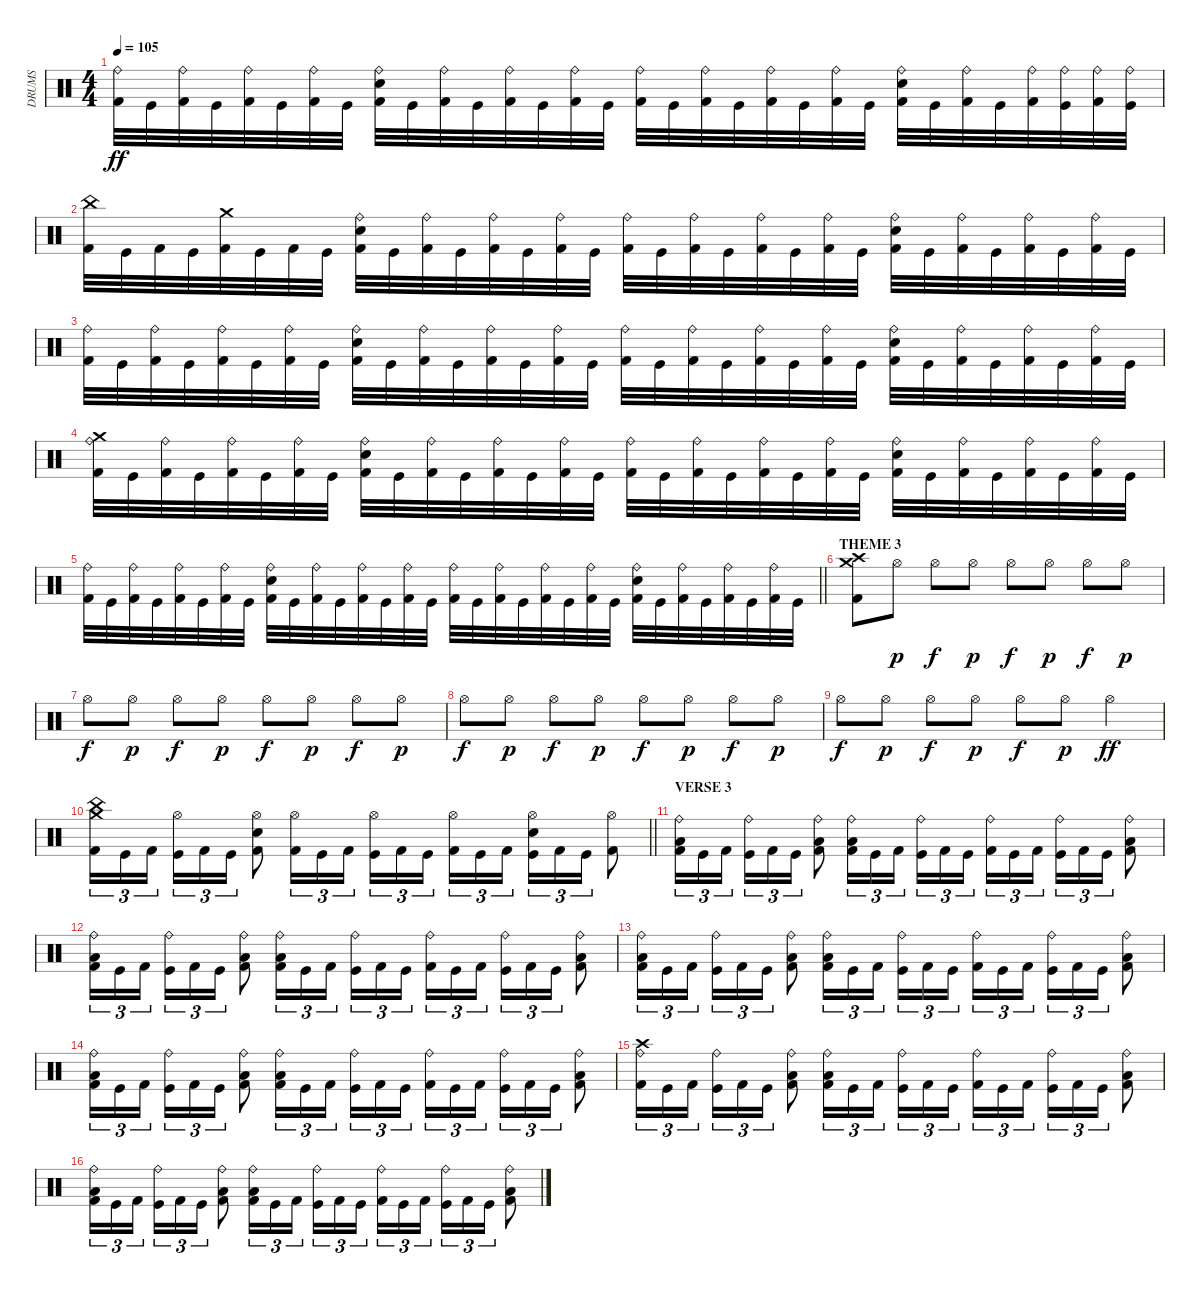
\track ("DRUMS" "DRUMS") {instrument percussion}
\staff {score}
\articulation defaults
\ts (4 4)
\tempo 105
\clef neutral
\ks c
("Ride (bell)" "Kick (hit) 2").32{dy ff} "Kick (hit)".32 ("Ride (bell)" "Kick (hit) 2").32 "Kick (hit)".32 ("Ride (bell)" "Kick (hit) 2").32 "Kick (hit)".32 ("Ride (bell)" "Kick (hit) 2").32 "Kick (hit)".32 ("Ride (bell)" "Snare (hit) 2" "Kick (hit) 2").32 "Kick (hit)".32 ("Ride (bell)" "Kick (hit) 2").32 "Kick (hit)".32 ("Ride (bell)" "Kick (hit) 2").32 "Kick (hit)".32 ("Ride (bell)" "Kick (hit) 2").32 "Kick (hit)".32 ("Ride (bell)" "Kick (hit) 2").32 "Kick (hit)".32 ("Ride (bell)" "Kick (hit) 2").32 "Kick (hit)".32 ("Ride (bell)" "Kick (hit) 2").32 "Kick (hit)".32 ("Ride (bell)" "Kick (hit) 2").32 "Kick (hit)".32 ("Ride (bell)" "Snare (hit) 2" "Kick (hit) 2").32 "Kick (hit)".32 ("Ride (bell)" "Kick (hit) 2").32 "Kick (hit)".32 ("Ride (bell)" "Kick (hit) 2").32 ("Ride (bell)" "Kick (hit)").32 ("Ride (bell)" "Kick (hit) 2").32 ("Ride (bell)" "Kick (hit)").32 |
("China (hit)" "Kick (hit) 2").32 "Kick (hit)".32 "Kick (hit) 2".32 "Kick (hit)".32 ("Crash medium (hit)" "Kick (hit) 2").32 "Kick (hit)".32 "Kick (hit) 2".32 "Kick (hit)".32 ("Ride (bell)" "Snare (hit) 2" "Kick (hit) 2").32 "Kick (hit)".32 ("Ride (bell)" "Kick (hit) 2").32 "Kick (hit)".32 ("Ride (bell)" "Kick (hit) 2").32 "Kick (hit)".32 ("Ride (bell)" "Kick (hit) 2").32 "Kick (hit)".32 ("Ride (bell)" "Kick (hit) 2").32 "Kick (hit)".32 ("Ride (bell)" "Kick (hit) 2").32 "Kick (hit)".32 ("Ride (bell)" "Kick (hit) 2").32 "Kick (hit)".32 ("Ride (bell)" "Kick (hit) 2").32 "Kick (hit)".32 ("Ride (bell)" "Snare (hit) 2" "Kick (hit) 2").32 "Kick (hit)".32 ("Ride (bell)" "Kick (hit) 2").32 "Kick (hit)".32 ("Ride (bell)" "Kick (hit) 2").32 "Kick (hit)".32 ("Ride (bell)" "Kick (hit) 2").32 "Kick (hit)".32 |
("Ride (bell)" "Kick (hit) 2").32 "Kick (hit)".32 ("Ride (bell)" "Kick (hit) 2").32 "Kick (hit)".32 ("Ride (bell)" "Kick (hit) 2").32 "Kick (hit)".32 ("Ride (bell)" "Kick (hit) 2").32 "Kick (hit)".32 ("Ride (bell)" "Snare (hit) 2" "Kick (hit) 2").32 "Kick (hit)".32 ("Ride (bell)" "Kick (hit) 2").32 "Kick (hit)".32 ("Ride (bell)" "Kick (hit) 2").32 "Kick (hit)".32 ("Ride (bell)" "Kick (hit) 2").32 "Kick (hit)".32 ("Ride (bell)" "Kick (hit) 2").32 "Kick (hit)".32 ("Ride (bell)" "Kick (hit) 2").32 "Kick (hit)".32 ("Ride (bell)" "Kick (hit) 2").32 "Kick (hit)".32 ("Ride (bell)" "Kick (hit) 2").32 "Kick (hit)".32 ("Ride (bell)" "Snare (hit) 2" "Kick (hit) 2").32 "Kick (hit)".32 ("Ride (bell)" "Kick (hit) 2").32 "Kick (hit)".32 ("Ride (bell)" "Kick (hit) 2").32 "Kick (hit)".32 ("Ride (bell)" "Kick (hit) 2").32 "Kick (hit)".32 |
("Ride (bell)" "Crash medium (hit)" "Kick (hit) 2").32 "Kick (hit)".32 ("Ride (bell)" "Kick (hit) 2").32 "Kick (hit)".32 ("Ride (bell)" "Kick (hit) 2").32 "Kick (hit)".32 ("Ride (bell)" "Kick (hit) 2").32 "Kick (hit)".32 ("Ride (bell)" "Snare (hit) 2" "Kick (hit) 2").32 "Kick (hit)".32 ("Ride (bell)" "Kick (hit) 2").32 "Kick (hit)".32 ("Ride (bell)" "Kick (hit) 2").32 "Kick (hit)".32 ("Ride (bell)" "Kick (hit) 2").32 "Kick (hit)".32 ("Ride (bell)" "Kick (hit) 2").32 "Kick (hit)".32 ("Ride (bell)" "Kick (hit) 2").32 "Kick (hit)".32 ("Ride (bell)" "Kick (hit) 2").32 "Kick (hit)".32 ("Ride (bell)" "Kick (hit) 2").32 "Kick (hit)".32 ("Ride (bell)" "Snare (hit) 2" "Kick (hit) 2").32 "Kick (hit)".32 ("Ride (bell)" "Kick (hit) 2").32 "Kick (hit)".32 ("Ride (bell)" "Kick (hit) 2").32 "Kick (hit)".32 ("Ride (bell)" "Kick (hit) 2").32 "Kick (hit)".32 |
\barLineRight lightlight
("Ride (bell)" "Kick (hit) 2").32 "Kick (hit)".32 ("Ride (bell)" "Kick (hit) 2").32 "Kick (hit)".32 ("Ride (bell)" "Kick (hit) 2").32 "Kick (hit)".32 ("Ride (bell)" "Kick (hit) 2").32 "Kick (hit)".32 ("Ride (bell)" "Snare (hit) 2" "Kick (hit) 2").32 "Kick (hit)".32 ("Ride (bell)" "Kick (hit) 2").32 "Kick (hit)".32 ("Ride (bell)" "Kick (hit) 2").32 "Kick (hit)".32 ("Ride (bell)" "Kick (hit) 2").32 "Kick (hit)".32 ("Ride (bell)" "Kick (hit) 2").32 "Kick (hit)".32 ("Ride (bell)" "Kick (hit) 2").32 "Kick (hit)".32 ("Ride (bell)" "Kick (hit) 2").32 "Kick (hit)".32 ("Ride (bell)" "Kick (hit) 2").32 "Kick (hit)".32 ("Ride (bell)" "Snare (hit) 2" "Kick (hit) 2").32 "Kick (hit)".32 ("Ride (bell)" "Kick (hit) 2").32 "Kick (hit)".32 ("Ride (bell)" "Kick (hit) 2").32 "Kick (hit)".32 ("Ride (bell)" "Kick (hit) 2").32 "Kick (hit)".32 |
\section ("" "THEME 3")
("Crash medium (hit)" "Crash high (hit)" "Kick (hit) 2").8 "Hi-Hat (open)".8{dy p} "Hi-Hat (open)".8{dy f} "Hi-Hat (open)".8{dy p} "Hi-Hat (open)".8{dy f} "Hi-Hat (open)".8{dy p} "Hi-Hat (open)".8{dy f} "Hi-Hat (open)".8{dy p} |
"Hi-Hat (open)".8{dy f} "Hi-Hat (open)".8{dy p} "Hi-Hat (open)".8{dy f} "Hi-Hat (open)".8{dy p} "Hi-Hat (open)".8{dy f} "Hi-Hat (open)".8{dy p} "Hi-Hat (open)".8{dy f} "Hi-Hat (open)".8{dy p} |
"Hi-Hat (open)".8{dy f} "Hi-Hat (open)".8{dy p} "Hi-Hat (open)".8{dy f} "Hi-Hat (open)".8{dy p} "Hi-Hat (open)".8{dy f} "Hi-Hat (open)".8{dy p} "Hi-Hat (open)".8{dy f} "Hi-Hat (open)".8{dy p} |
"Hi-Hat (open)".8{dy f} "Hi-Hat (open)".8{dy p} "Hi-Hat (open)".8{dy f} "Hi-Hat (open)".8{dy p} "Hi-Hat (open)".8{dy f} "Hi-Hat (open)".8{dy p} "Hi-Hat (open)".4{dy ff} |
\barLineRight lightlight
("China (hit)" "Crash medium (hit)" "Kick (hit) 2").16{tu (3 2)} "Kick (hit)".16{tu (3 2)} "Kick (hit) 2".16{tu (3 2) beam splitsecondary} ("Hi-Hat (open)" "Kick (hit)").16{tu (3 2)} "Kick (hit) 2".16{tu (3 2)} "Kick (hit)".16{tu (3 2)} ("Hi-Hat (open)" "Snare (hit) 2" "Kick (hit) 2").8 ("Hi-Hat (open)" "Kick (hit) 2").16{tu (3 2)} "Kick (hit)".16{tu (3 2)} "Kick (hit) 2".16{tu (3 2)} ("Hi-Hat (open)" "Kick (hit)").16{tu (3 2)} "Kick (hit) 2".16{tu (3 2)} "Kick (hit)".16{tu (3 2) beam splitsecondary} ("Hi-Hat (open)" "Kick (hit) 2").16{tu (3 2)} "Kick (hit)".16{tu (3 2)} "Kick (hit) 2".16{tu (3 2)} ("Hi-Hat (open)" "Snare (hit) 2" "Kick (hit)").16{tu (3 2)} "Kick (hit) 2".16{tu (3 2)} "Kick (hit)".16{tu (3 2)} ("Hi-Hat (open)" "Kick (hit) 2").8 |
\section ("" "VERSE 3")
("Ride (bell)" "Low Tom (hit)" "Kick (hit) 2").16{tu (3 2)} "Kick (hit)".16{tu (3 2)} "Kick (hit) 2".16{tu (3 2) beam splitsecondary} ("Ride (bell)" "Kick (hit)").16{tu (3 2)} "Kick (hit) 2".16{tu (3 2)} "Kick (hit)".16{tu (3 2)} ("Ride (bell)" "Low Tom (hit)" "Kick (hit) 2").8 ("Ride (bell)" "Low Tom (hit)" "Kick (hit) 2").16{tu (3 2)} "Kick (hit)".16{tu (3 2)} "Kick (hit) 2".16{tu (3 2)} ("Ride (bell)" "Kick (hit)").16{tu (3 2)} "Kick (hit) 2".16{tu (3 2)} "Kick (hit)".16{tu (3 2) beam splitsecondary} ("Ride (bell)" "Kick (hit) 2").16{tu (3 2)} "Kick (hit)".16{tu (3 2)} "Kick (hit) 2".16{tu (3 2)} ("Ride (bell)" "Kick (hit)").16{tu (3 2)} "Kick (hit) 2".16{tu (3 2)} "Kick (hit)".16{tu (3 2)} ("Ride (bell)" "Low Tom (hit)" "Kick (hit) 2").8 |
("Ride (bell)" "Low Tom (hit)" "Kick (hit) 2").16{tu (3 2)} "Kick (hit)".16{tu (3 2)} "Kick (hit) 2".16{tu (3 2) beam splitsecondary} ("Ride (bell)" "Kick (hit)").16{tu (3 2)} "Kick (hit) 2".16{tu (3 2)} "Kick (hit)".16{tu (3 2)} ("Ride (bell)" "Low Tom (hit)" "Kick (hit) 2").8 ("Ride (bell)" "Low Tom (hit)" "Kick (hit) 2").16{tu (3 2)} "Kick (hit)".16{tu (3 2)} "Kick (hit) 2".16{tu (3 2)} ("Ride (bell)" "Kick (hit)").16{tu (3 2)} "Kick (hit) 2".16{tu (3 2)} "Kick (hit)".16{tu (3 2) beam splitsecondary} ("Ride (bell)" "Kick (hit) 2").16{tu (3 2)} "Kick (hit)".16{tu (3 2)} "Kick (hit) 2".16{tu (3 2)} ("Ride (bell)" "Kick (hit)").16{tu (3 2)} "Kick (hit) 2".16{tu (3 2)} "Kick (hit)".16{tu (3 2)} ("Ride (bell)" "Low Tom (hit)" "Kick (hit) 2").8 |
("Ride (bell)" "Low Tom (hit)" "Kick (hit) 2").16{tu (3 2)} "Kick (hit)".16{tu (3 2)} "Kick (hit) 2".16{tu (3 2) beam splitsecondary} ("Ride (bell)" "Kick (hit)").16{tu (3 2)} "Kick (hit) 2".16{tu (3 2)} "Kick (hit)".16{tu (3 2)} ("Ride (bell)" "Low Tom (hit)" "Kick (hit) 2").8 ("Ride (bell)" "Low Tom (hit)" "Kick (hit) 2").16{tu (3 2)} "Kick (hit)".16{tu (3 2)} "Kick (hit) 2".16{tu (3 2)} ("Ride (bell)" "Kick (hit)").16{tu (3 2)} "Kick (hit) 2".16{tu (3 2)} "Kick (hit)".16{tu (3 2) beam splitsecondary} ("Ride (bell)" "Kick (hit) 2").16{tu (3 2)} "Kick (hit)".16{tu (3 2)} "Kick (hit) 2".16{tu (3 2)} ("Ride (bell)" "Kick (hit)").16{tu (3 2)} "Kick (hit) 2".16{tu (3 2)} "Kick (hit)".16{tu (3 2)} ("Ride (bell)" "Low Tom (hit)" "Kick (hit) 2").8 |
("Ride (bell)" "Low Tom (hit)" "Kick (hit) 2").16{tu (3 2)} "Kick (hit)".16{tu (3 2)} "Kick (hit) 2".16{tu (3 2) beam splitsecondary} ("Ride (bell)" "Kick (hit)").16{tu (3 2)} "Kick (hit) 2".16{tu (3 2)} "Kick (hit)".16{tu (3 2)} ("Ride (bell)" "Low Tom (hit)" "Kick (hit) 2").8 ("Ride (bell)" "Low Tom (hit)" "Kick (hit) 2").16{tu (3 2)} "Kick (hit)".16{tu (3 2)} "Kick (hit) 2".16{tu (3 2)} ("Ride (bell)" "Kick (hit)").16{tu (3 2)} "Kick (hit) 2".16{tu (3 2)} "Kick (hit)".16{tu (3 2) beam splitsecondary} ("Ride (bell)" "Kick (hit) 2").16{tu (3 2)} "Kick (hit)".16{tu (3 2)} "Kick (hit) 2".16{tu (3 2)} ("Ride (bell)" "Kick (hit)").16{tu (3 2)} "Kick (hit) 2".16{tu (3 2)} "Kick (hit)".16{tu (3 2)} ("Ride (bell)" "Low Tom (hit)" "Kick (hit) 2").8 |
("Ride (bell)" "Crash high (hit)" "Kick (hit) 2").16{tu (3 2)} "Kick (hit)".16{tu (3 2)} "Kick (hit) 2".16{tu (3 2) beam splitsecondary} ("Ride (bell)" "Kick (hit)").16{tu (3 2)} "Kick (hit) 2".16{tu (3 2)} "Kick (hit)".16{tu (3 2)} ("Ride (bell)" "Low Tom (hit)" "Kick (hit) 2").8 ("Ride (bell)" "Low Tom (hit)" "Kick (hit) 2").16{tu (3 2)} "Kick (hit)".16{tu (3 2)} "Kick (hit) 2".16{tu (3 2)} ("Ride (bell)" "Kick (hit)").16{tu (3 2)} "Kick (hit) 2".16{tu (3 2)} "Kick (hit)".16{tu (3 2) beam splitsecondary} ("Ride (bell)" "Kick (hit) 2").16{tu (3 2)} "Kick (hit)".16{tu (3 2)} "Kick (hit) 2".16{tu (3 2)} ("Ride (bell)" "Kick (hit)").16{tu (3 2)} "Kick (hit) 2".16{tu (3 2)} "Kick (hit)".16{tu (3 2)} ("Ride (bell)" "Low Tom (hit)" "Kick (hit) 2").8 |
("Ride (bell)" "Low Tom (hit)" "Kick (hit) 2").16{tu (3 2)} "Kick (hit)".16{tu (3 2)} "Kick (hit) 2".16{tu (3 2) beam splitsecondary} ("Ride (bell)" "Kick (hit)").16{tu (3 2)} "Kick (hit) 2".16{tu (3 2)} "Kick (hit)".16{tu (3 2)} ("Ride (bell)" "Low Tom (hit)" "Kick (hit) 2").8 ("Ride (bell)" "Low Tom (hit)" "Kick (hit) 2").16{tu (3 2)} "Kick (hit)".16{tu (3 2)} "Kick (hit) 2".16{tu (3 2)} ("Ride (bell)" "Kick (hit)").16{tu (3 2)} "Kick (hit) 2".16{tu (3 2)} "Kick (hit)".16{tu (3 2) beam splitsecondary} ("Ride (bell)" "Kick (hit) 2").16{tu (3 2)} "Kick (hit)".16{tu (3 2)} "Kick (hit) 2".16{tu (3 2)} ("Ride (bell)" "Kick (hit)").16{tu (3 2)} "Kick (hit) 2".16{tu (3 2)} "Kick (hit)".16{tu (3 2)} ("Ride (bell)" "Low Tom (hit)" "Kick (hit) 2").8
